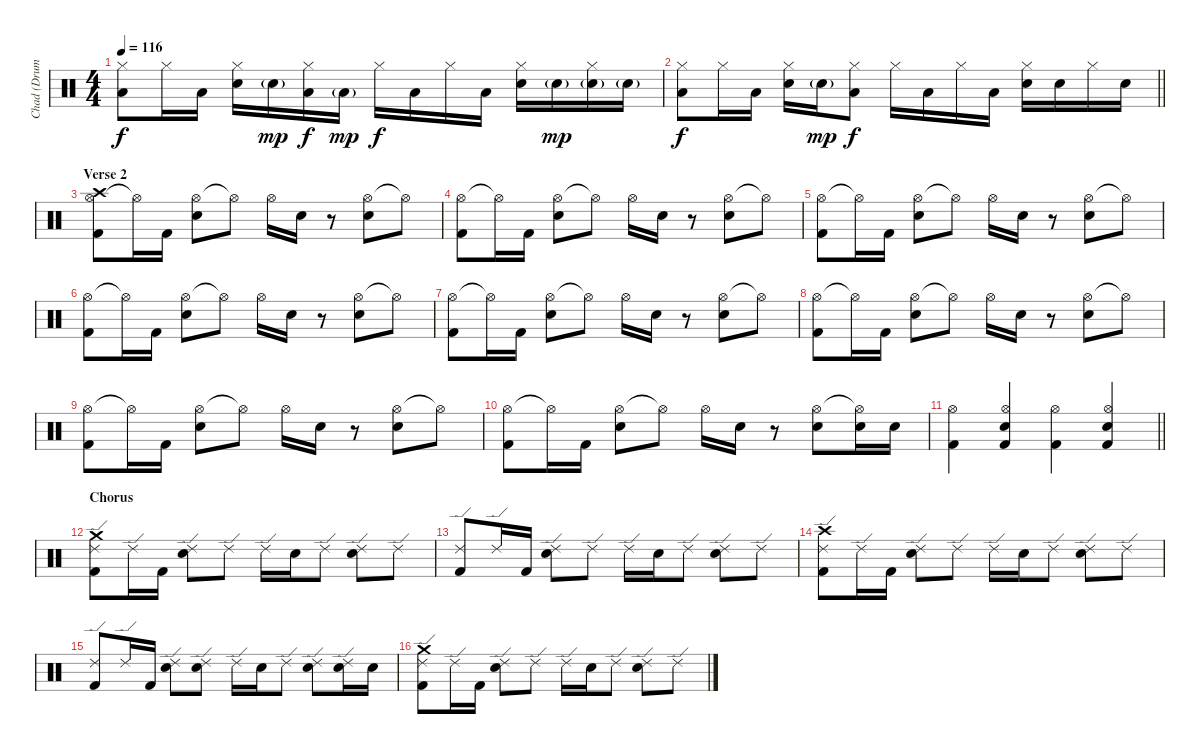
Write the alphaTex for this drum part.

\track ("Chad (Drums)" "Chad (Drum") {instrument percussion}
\staff {score}
\articulation defaults
\ts (4 4)
\tempo 116
\clef neutral
\ks c
("Hi-Hat (closed)" "Low Floor Tom (hit)").8{dy f} "Hi-Hat (closed)".16 "Low Floor Tom (hit)".16 ("Hi-Hat (closed)" "Snare (hit) 2").16 "Snare (hit) 2"{g}.16{dy mp} ("Hi-Hat (closed)" "Low Floor Tom (hit)").16{dy f} "Low Floor Tom (hit)"{g}.16{dy mp} "Hi-Hat (closed)".16{dy f} "Low Floor Tom (hit)".16 "Hi-Hat (closed)".16 "Low Floor Tom (hit)".16 ("Hi-Hat (closed)" "Snare (hit) 2").16 "Snare (hit) 2"{g}.16{dy mp} ("Hi-Hat (closed)" "Snare (hit) 2"{g}).16 "Snare (hit) 2"{g}.16 |
\barLineRight lightlight
("Hi-Hat (closed)" "Low Floor Tom (hit)").8{dy f} "Hi-Hat (closed)".16 "Low Floor Tom (hit)".16 ("Hi-Hat (closed)" "Snare (hit) 2").16 "Snare (hit) 2"{g}.16{dy mp} ("Hi-Hat (closed)" "Low Floor Tom (hit)").8{dy f} "Hi-Hat (closed)".16 "Low Floor Tom (hit)".16 "Hi-Hat (closed)".16 "Low Floor Tom (hit)".16 ("Hi-Hat (closed)" "Snare (hit) 2").16 "Snare (hit) 2".16 "Hi-Hat (closed)".16 "Snare (hit) 2".16 |
\section ("" "Verse 2")
("Hi-Hat (open)" "Crash high (hit)" "Kick (hit) 2").8 "Hi-Hat (open)"{t}.16 "Kick (hit) 2".16 ("Hi-Hat (open)" "Snare (hit) 2").8 "Hi-Hat (open)"{t}.8 "Hi-Hat (open)".16 "Snare (hit) 2".16 r.8 ("Hi-Hat (open)" "Snare (hit) 2").8 "Hi-Hat (open)"{t}.8 |
("Hi-Hat (open)" "Kick (hit) 2").8 "Hi-Hat (open)"{t}.16 "Kick (hit) 2".16 ("Hi-Hat (open)" "Snare (hit) 2").8 "Hi-Hat (open)"{t}.8 "Hi-Hat (open)".16 "Snare (hit) 2".16 r.8 ("Hi-Hat (open)" "Snare (hit) 2").8 "Hi-Hat (open)"{t}.8 |
("Hi-Hat (open)" "Kick (hit) 2").8 "Hi-Hat (open)"{t}.16 "Kick (hit) 2".16 ("Hi-Hat (open)" "Snare (hit) 2").8 "Hi-Hat (open)"{t}.8 "Hi-Hat (open)".16 "Snare (hit) 2".16 r.8 ("Hi-Hat (open)" "Snare (hit) 2").8 "Hi-Hat (open)"{t}.8 |
("Hi-Hat (open)" "Kick (hit) 2").8 "Hi-Hat (open)"{t}.16 "Kick (hit) 2".16 ("Hi-Hat (open)" "Snare (hit) 2").8 "Hi-Hat (open)"{t}.8 "Hi-Hat (open)".16 "Snare (hit) 2".16 r.8 ("Hi-Hat (open)" "Snare (hit) 2").8 "Hi-Hat (open)"{t}.8 |
("Hi-Hat (open)" "Kick (hit) 2").8 "Hi-Hat (open)"{t}.16 "Kick (hit) 2".16 ("Hi-Hat (open)" "Snare (hit) 2").8 "Hi-Hat (open)"{t}.8 "Hi-Hat (open)".16 "Snare (hit) 2".16 r.8 ("Hi-Hat (open)" "Snare (hit) 2").8 "Hi-Hat (open)"{t}.8 |
("Hi-Hat (open)" "Kick (hit) 2").8 "Hi-Hat (open)"{t}.16 "Kick (hit) 2".16 ("Hi-Hat (open)" "Snare (hit) 2").8 "Hi-Hat (open)"{t}.8 "Hi-Hat (open)".16 "Snare (hit) 2".16 r.8 ("Hi-Hat (open)" "Snare (hit) 2").8 "Hi-Hat (open)"{t}.8 |
("Hi-Hat (open)" "Kick (hit) 2").8 "Hi-Hat (open)"{t}.16 "Kick (hit) 2".16 ("Hi-Hat (open)" "Snare (hit) 2").8 "Hi-Hat (open)"{t}.8 "Hi-Hat (open)".16 "Snare (hit) 2".16 r.8 ("Hi-Hat (open)" "Snare (hit) 2").8 "Hi-Hat (open)"{t}.8 |
("Hi-Hat (open)" "Kick (hit) 2").8 "Hi-Hat (open)"{t}.16 "Kick (hit) 2".16 ("Hi-Hat (open)" "Snare (hit) 2").8 "Hi-Hat (open)"{t}.8 "Hi-Hat (open)".16 "Snare (hit) 2".16 r.8 ("Hi-Hat (open)" "Snare (hit) 2").8 ("Hi-Hat (open)"{t} "Snare (hit) 2").16 "Snare (hit) 2".16 |
\barLineRight lightlight
("Hi-Hat (open)" "Kick (hit) 2").4 ("Hi-Hat (open)" "Snare (hit) 2" "Kick (hit) 2").4 ("Hi-Hat (open)" "Kick (hit) 2").4 ("Hi-Hat (open)" "Snare (hit) 2" "Kick (hit) 2").4 |
\section ("" "Chorus")
("Ride (edge) 2" "Crash medium (hit)" "Kick (hit) 2").8 "Ride (edge) 2".16 "Kick (hit) 2".16 ("Ride (edge) 2" "Snare (hit) 2").8 "Ride (edge) 2".8 "Ride (edge) 2".16 "Snare (hit) 2".16 "Ride (edge) 2".8 ("Ride (edge) 2" "Snare (hit) 2").8 "Ride (edge) 2".8 |
("Ride (edge) 2" "Kick (hit) 2").8 "Ride (edge) 2".16 "Kick (hit) 2".16 ("Ride (edge) 2" "Snare (hit) 2").8 "Ride (edge) 2".8 "Ride (edge) 2".16 "Snare (hit) 2".16 "Ride (edge) 2".8 ("Ride (edge) 2" "Snare (hit) 2").8 "Ride (edge) 2".8 |
("Ride (edge) 2" "Crash high (hit)" "Kick (hit) 2").8 "Ride (edge) 2".16 "Kick (hit) 2".16 ("Ride (edge) 2" "Snare (hit) 2").8 "Ride (edge) 2".8 "Ride (edge) 2".16 "Snare (hit) 2".16 "Ride (edge) 2".8 ("Ride (edge) 2" "Snare (hit) 2").8 "Ride (edge) 2".8 |
("Ride (edge) 2" "Kick (hit) 2").8 "Ride (edge) 2".16 "Kick (hit) 2".16 ("Ride (edge) 2" "Snare (hit) 2").8 ("Ride (edge) 2" "Snare (hit) 2").8 "Ride (edge) 2".16 "Snare (hit) 2".16 "Ride (edge) 2".8 ("Ride (edge) 2" "Snare (hit) 2").8 ("Ride (edge) 2" "Snare (hit) 2").16 "Snare (hit) 2".16 |
("Ride (edge) 2" "Crash medium (hit)" "Kick (hit) 2").8 "Ride (edge) 2".16 "Kick (hit) 2".16 ("Ride (edge) 2" "Snare (hit) 2").8 "Ride (edge) 2".8 "Ride (edge) 2".16 "Snare (hit) 2".16 "Ride (edge) 2".8 ("Ride (edge) 2" "Snare (hit) 2").8 "Ride (edge) 2".8
